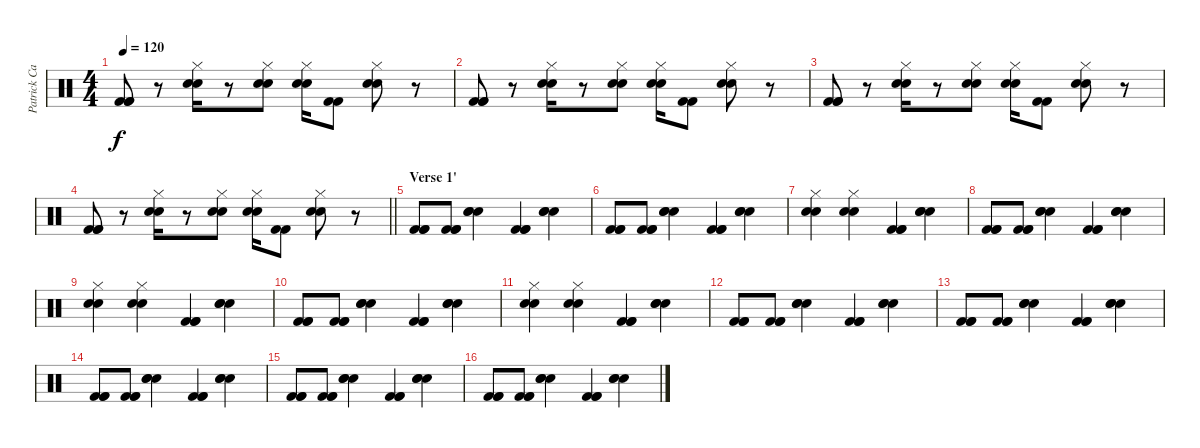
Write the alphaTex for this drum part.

\track ("Patrick Carney (Drums)" "Patrick Ca") {instrument percussion}
\staff {score}
\articulation defaults
\ts (4 4)
\tempo 120
\clef neutral
\ks c
("Kick (hit) 2" "Kick (hit) 2" "Kick (hit) 2").8{dy f} r.8 ("Electric Snare (hit)" "Snare (hit) 2" "Hi-Hat (closed)").16 r.8 ("Electric Snare (hit)" "Snare (hit) 2" "Hi-Hat (closed)").8 ("Electric Snare (hit)" "Snare (hit) 2" "Hi-Hat (closed)").16 ("Kick (hit) 2" "Kick (hit) 2").8 ("Electric Snare (hit)" "Snare (hit) 2" "Hi-Hat (closed)").8 r.8 |
("Kick (hit) 2" "Kick (hit) 2" "Kick (hit) 2").8 r.8 ("Electric Snare (hit)" "Snare (hit) 2" "Hi-Hat (closed)").16 r.8 ("Electric Snare (hit)" "Snare (hit) 2" "Hi-Hat (closed)").8 ("Electric Snare (hit)" "Snare (hit) 2" "Hi-Hat (closed)").16 ("Kick (hit) 2" "Kick (hit) 2").8 ("Electric Snare (hit)" "Snare (hit) 2" "Hi-Hat (closed)").8 r.8 |
("Kick (hit) 2" "Kick (hit) 2" "Kick (hit) 2").8 r.8 ("Electric Snare (hit)" "Snare (hit) 2" "Hi-Hat (closed)").16 r.8 ("Electric Snare (hit)" "Snare (hit) 2" "Hi-Hat (closed)").8 ("Electric Snare (hit)" "Snare (hit) 2" "Hi-Hat (closed)").16 ("Kick (hit) 2" "Kick (hit) 2").8 ("Electric Snare (hit)" "Snare (hit) 2" "Hi-Hat (closed)").8 r.8 |
\barLineRight lightlight
("Kick (hit) 2" "Kick (hit) 2" "Kick (hit) 2").8 r.8 ("Electric Snare (hit)" "Snare (hit) 2" "Hi-Hat (closed)").16 r.8 ("Electric Snare (hit)" "Snare (hit) 2" "Hi-Hat (closed)").8 ("Electric Snare (hit)" "Snare (hit) 2" "Hi-Hat (closed)").16 ("Kick (hit) 2" "Kick (hit) 2").8 ("Electric Snare (hit)" "Snare (hit) 2" "Hi-Hat (closed)").8 r.8 |
\section ("" "Verse 1'")
("Kick (hit) 2" "Kick (hit) 2" "Kick (hit) 2").8 ("Kick (hit) 2" "Kick (hit) 2" "Kick (hit) 2").8 ("Electric Snare (hit)" "Snare (hit) 2" "Snare (hit) 2").4 ("Kick (hit) 2" "Kick (hit) 2" "Kick (hit) 2").4 ("Electric Snare (hit)" "Snare (hit) 2" "Snare (hit) 2").4 |
("Kick (hit) 2" "Kick (hit) 2" "Kick (hit) 2").8 ("Kick (hit) 2" "Kick (hit) 2" "Kick (hit) 2").8 ("Electric Snare (hit)" "Snare (hit) 2" "Snare (hit) 2").4 ("Kick (hit) 2" "Kick (hit) 2" "Kick (hit) 2").4 ("Electric Snare (hit)" "Snare (hit) 2" "Snare (hit) 2").4 |
("Electric Snare (hit)" "Snare (hit) 2" "Hi-Hat (closed)").4 ("Electric Snare (hit)" "Snare (hit) 2" "Hi-Hat (closed)").4 ("Kick (hit) 2" "Kick (hit) 2" "Kick (hit) 2").4 ("Electric Snare (hit)" "Snare (hit) 2" "Snare (hit) 2").4 |
("Kick (hit) 2" "Kick (hit) 2" "Kick (hit) 2").8 ("Kick (hit) 2" "Kick (hit) 2" "Kick (hit) 2").8 ("Electric Snare (hit)" "Snare (hit) 2" "Snare (hit) 2").4 ("Kick (hit) 2" "Kick (hit) 2" "Kick (hit) 2").4 ("Electric Snare (hit)" "Snare (hit) 2" "Snare (hit) 2").4 |
("Electric Snare (hit)" "Snare (hit) 2" "Hi-Hat (closed)").4 ("Electric Snare (hit)" "Snare (hit) 2" "Hi-Hat (closed)").4 ("Kick (hit) 2" "Kick (hit) 2" "Kick (hit) 2").4 ("Electric Snare (hit)" "Snare (hit) 2" "Snare (hit) 2").4 |
("Kick (hit) 2" "Kick (hit) 2" "Kick (hit) 2").8 ("Kick (hit) 2" "Kick (hit) 2" "Kick (hit) 2").8 ("Electric Snare (hit)" "Snare (hit) 2" "Snare (hit) 2").4 ("Kick (hit) 2" "Kick (hit) 2" "Kick (hit) 2").4 ("Electric Snare (hit)" "Snare (hit) 2" "Snare (hit) 2").4 |
("Electric Snare (hit)" "Snare (hit) 2" "Hi-Hat (closed)").4 ("Electric Snare (hit)" "Snare (hit) 2" "Hi-Hat (closed)").4 ("Kick (hit) 2" "Kick (hit) 2" "Kick (hit) 2").4 ("Electric Snare (hit)" "Snare (hit) 2" "Snare (hit) 2").4 |
("Kick (hit) 2" "Kick (hit) 2" "Kick (hit) 2").8 ("Kick (hit) 2" "Kick (hit) 2" "Kick (hit) 2").8 ("Electric Snare (hit)" "Snare (hit) 2" "Snare (hit) 2").4 ("Kick (hit) 2" "Kick (hit) 2" "Kick (hit) 2").4 ("Electric Snare (hit)" "Snare (hit) 2" "Snare (hit) 2").4 |
("Kick (hit) 2" "Kick (hit) 2" "Kick (hit) 2").8 ("Kick (hit) 2" "Kick (hit) 2" "Kick (hit) 2").8 ("Electric Snare (hit)" "Snare (hit) 2" "Snare (hit) 2").4 ("Kick (hit) 2" "Kick (hit) 2" "Kick (hit) 2").4 ("Electric Snare (hit)" "Snare (hit) 2" "Snare (hit) 2").4 |
("Kick (hit) 2" "Kick (hit) 2" "Kick (hit) 2").8 ("Kick (hit) 2" "Kick (hit) 2" "Kick (hit) 2").8 ("Electric Snare (hit)" "Snare (hit) 2" "Snare (hit) 2").4 ("Kick (hit) 2" "Kick (hit) 2" "Kick (hit) 2").4 ("Electric Snare (hit)" "Snare (hit) 2" "Snare (hit) 2").4 |
("Kick (hit) 2" "Kick (hit) 2" "Kick (hit) 2").8 ("Kick (hit) 2" "Kick (hit) 2" "Kick (hit) 2").8 ("Electric Snare (hit)" "Snare (hit) 2" "Snare (hit) 2").4 ("Kick (hit) 2" "Kick (hit) 2" "Kick (hit) 2").4 ("Electric Snare (hit)" "Snare (hit) 2" "Snare (hit) 2").4 |
("Kick (hit) 2" "Kick (hit) 2" "Kick (hit) 2").8 ("Kick (hit) 2" "Kick (hit) 2" "Kick (hit) 2").8 ("Electric Snare (hit)" "Snare (hit) 2" "Snare (hit) 2").4 ("Kick (hit) 2" "Kick (hit) 2" "Kick (hit) 2").4 ("Electric Snare (hit)" "Snare (hit) 2" "Snare (hit) 2").4
